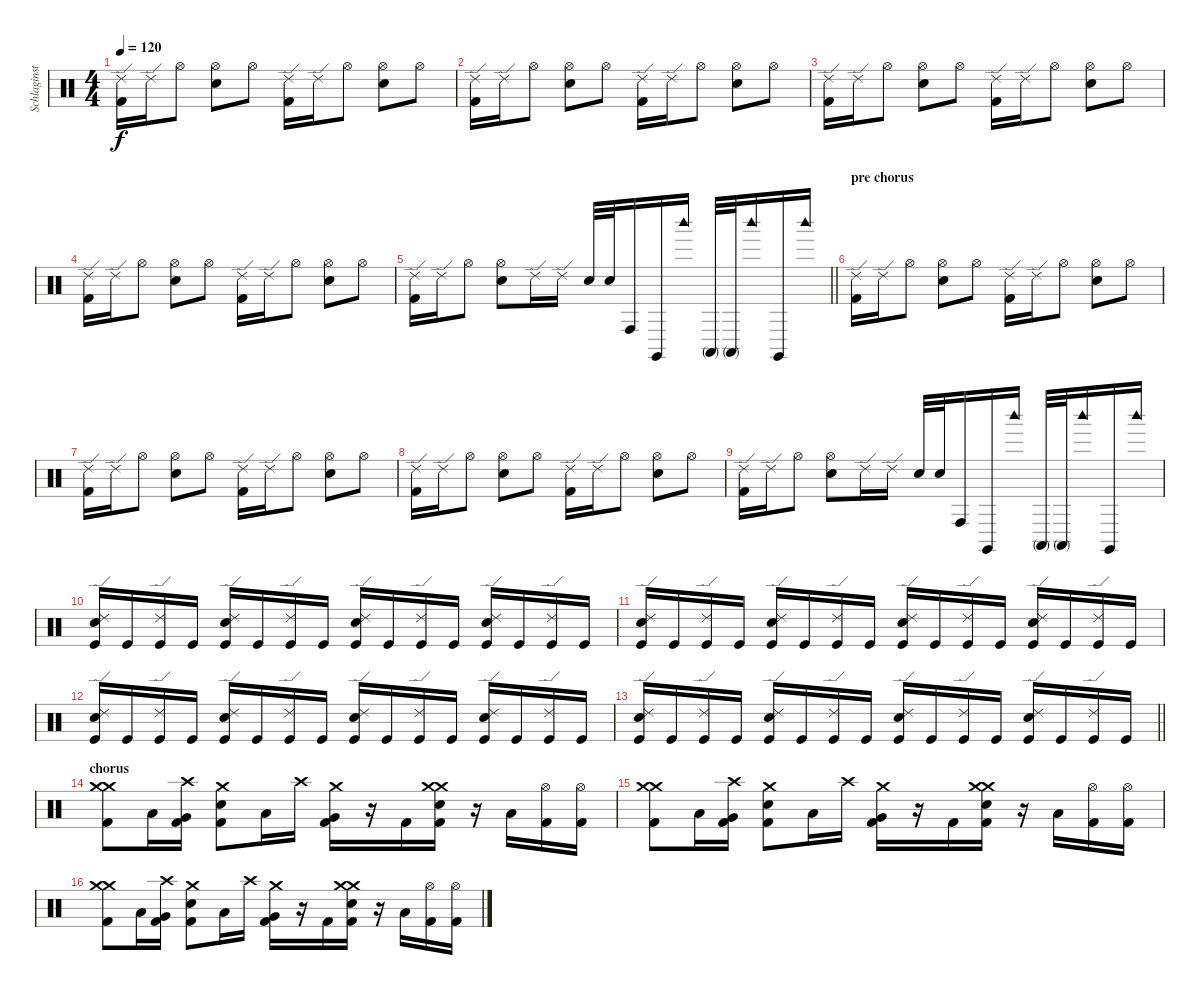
\track ("Schlaginstrumente - Auswahl" "Schlaginst") {instrument percussion}
\staff {score}
\articulation defaults
\ts (4 4)
\tempo 120
\clef neutral
\ks c
("Ride (edge) 2" "Kick (hit) 2").16{dy f} "Ride (edge) 2".16 "Hi-Hat (open)".8 ("Hi-Hat (open)" "Electric Snare (hit)").8 "Hi-Hat (open)".8 ("Ride (edge) 2" "Kick (hit) 2").16 "Ride (edge) 2".16 "Hi-Hat (open)".8 ("Hi-Hat (open)" "Electric Snare (hit)").8 "Hi-Hat (open)".8 |
("Ride (edge) 2" "Kick (hit) 2").16 "Ride (edge) 2".16 "Hi-Hat (open)".8 ("Hi-Hat (open)" "Electric Snare (hit)").8 "Hi-Hat (open)".8 ("Ride (edge) 2" "Kick (hit) 2").16 "Ride (edge) 2".16 "Hi-Hat (open)".8 ("Hi-Hat (open)" "Electric Snare (hit)").8 "Hi-Hat (open)".8 |
("Ride (edge) 2" "Kick (hit) 2").16 "Ride (edge) 2".16 "Hi-Hat (open)".8 ("Hi-Hat (open)" "Electric Snare (hit)").8 "Hi-Hat (open)".8 ("Ride (edge) 2" "Kick (hit) 2").16 "Ride (edge) 2".16 "Hi-Hat (open)".8 ("Hi-Hat (open)" "Electric Snare (hit)").8 "Hi-Hat (open)".8 |
("Ride (edge) 2" "Kick (hit) 2").16 "Ride (edge) 2".16 "Hi-Hat (open)".8 ("Hi-Hat (open)" "Electric Snare (hit)").8 "Hi-Hat (open)".8 ("Ride (edge) 2" "Kick (hit) 2").16 "Ride (edge) 2".16 "Hi-Hat (open)".8 ("Hi-Hat (open)" "Electric Snare (hit)").8 "Hi-Hat (open)".8 |
\barLineRight lightlight
("Ride (edge) 2" "Kick (hit) 2").16 "Ride (edge) 2".16 "Hi-Hat (open)".8 ("Hi-Hat (open)" "Electric Snare (hit)").8 "Ride (edge) 2".16 "Ride (edge) 2".16 "Electric Snare (hit)".32 "Electric Snare (hit)".32 "Conga high (hit)".16 "Claves (hit)".16 "Woodblock high (hit)".16 "Conga high (mute)".32 "Conga high (mute)".32 "Woodblock high (hit)".16 "Claves (hit)".16 "Woodblock high (hit)".16 |
\section ("" "pre chorus")
("Ride (edge) 2" "Kick (hit) 2").16 "Ride (edge) 2".16 "Hi-Hat (open)".8 ("Hi-Hat (open)" "Electric Snare (hit)").8 "Hi-Hat (open)".8 ("Ride (edge) 2" "Kick (hit) 2").16 "Ride (edge) 2".16 "Hi-Hat (open)".8 ("Hi-Hat (open)" "Electric Snare (hit)").8 "Hi-Hat (open)".8 |
("Ride (edge) 2" "Kick (hit) 2").16 "Ride (edge) 2".16 "Hi-Hat (open)".8 ("Hi-Hat (open)" "Electric Snare (hit)").8 "Hi-Hat (open)".8 ("Ride (edge) 2" "Kick (hit) 2").16 "Ride (edge) 2".16 "Hi-Hat (open)".8 ("Hi-Hat (open)" "Electric Snare (hit)").8 "Hi-Hat (open)".8 |
("Ride (edge) 2" "Kick (hit) 2").16 "Ride (edge) 2".16 "Hi-Hat (open)".8 ("Hi-Hat (open)" "Electric Snare (hit)").8 "Hi-Hat (open)".8 ("Ride (edge) 2" "Kick (hit) 2").16 "Ride (edge) 2".16 "Hi-Hat (open)".8 ("Hi-Hat (open)" "Electric Snare (hit)").8 "Hi-Hat (open)".8 |
("Ride (edge) 2" "Kick (hit) 2").16 "Ride (edge) 2".16 "Hi-Hat (open)".8 ("Hi-Hat (open)" "Electric Snare (hit)").8 "Ride (edge) 2".16 "Ride (edge) 2".16 "Electric Snare (hit)".32 "Electric Snare (hit)".32 "Conga high (hit)".16 "Claves (hit)".16 "Woodblock high (hit)".16 "Conga high (mute)".32 "Conga high (mute)".32 "Woodblock high (hit)".16 "Claves (hit)".16 "Woodblock high (hit)".16 |
("Ride (edge) 2" "Electric Snare (hit)" "Kick (hit)").16 "Kick (hit)".16 ("Ride (edge) 2" "Kick (hit)").16 "Kick (hit)".16 ("Ride (edge) 2" "Electric Snare (hit)" "Kick (hit)").16 "Kick (hit)".16 ("Ride (edge) 2" "Kick (hit)").16 "Kick (hit)".16 ("Ride (edge) 2" "Electric Snare (hit)" "Kick (hit)").16 "Kick (hit)".16 ("Ride (edge) 2" "Kick (hit)").16 "Kick (hit)".16 ("Ride (edge) 2" "Electric Snare (hit)" "Kick (hit)").16 "Kick (hit)".16 ("Ride (edge) 2" "Kick (hit)").16 "Kick (hit)".16 |
("Ride (edge) 2" "Electric Snare (hit)" "Kick (hit)").16 "Kick (hit)".16 ("Ride (edge) 2" "Kick (hit)").16 "Kick (hit)".16 ("Ride (edge) 2" "Electric Snare (hit)" "Kick (hit)").16 "Kick (hit)".16 ("Ride (edge) 2" "Kick (hit)").16 "Kick (hit)".16 ("Ride (edge) 2" "Electric Snare (hit)" "Kick (hit)").16 "Kick (hit)".16 ("Ride (edge) 2" "Kick (hit)").16 "Kick (hit)".16 ("Ride (edge) 2" "Electric Snare (hit)" "Kick (hit)").16 "Kick (hit)".16 ("Ride (edge) 2" "Kick (hit)").16 "Kick (hit)".16 |
("Ride (edge) 2" "Electric Snare (hit)" "Kick (hit)").16 "Kick (hit)".16 ("Ride (edge) 2" "Kick (hit)").16 "Kick (hit)".16 ("Ride (edge) 2" "Electric Snare (hit)" "Kick (hit)").16 "Kick (hit)".16 ("Ride (edge) 2" "Kick (hit)").16 "Kick (hit)".16 ("Ride (edge) 2" "Electric Snare (hit)" "Kick (hit)").16 "Kick (hit)".16 ("Ride (edge) 2" "Kick (hit)").16 "Kick (hit)".16 ("Ride (edge) 2" "Electric Snare (hit)" "Kick (hit)").16 "Kick (hit)".16 ("Ride (edge) 2" "Kick (hit)").16 "Kick (hit)".16 |
\barLineRight lightlight
("Ride (edge) 2" "Electric Snare (hit)" "Kick (hit)").16 "Kick (hit)".16 ("Ride (edge) 2" "Kick (hit)").16 "Kick (hit)".16 ("Ride (edge) 2" "Electric Snare (hit)" "Kick (hit)").16 "Kick (hit)".16 ("Ride (edge) 2" "Kick (hit)").16 "Kick (hit)".16 ("Ride (edge) 2" "Electric Snare (hit)" "Kick (hit)").16 "Kick (hit)".16 ("Ride (edge) 2" "Kick (hit)").16 "Kick (hit)".16 ("Ride (edge) 2" "Electric Snare (hit)" "Kick (hit)").16 "Kick (hit)".16 ("Ride (edge) 2" "Kick (hit)").16 "Kick (hit)".16 |
\section ("" "chorus")
("Crash medium (hit)" "Kick (hit) 2" "Crash medium (hit)").8 "Low Tom (hit)".16 ("Very Low Tom (hit)" "Kick (hit) 2" "Crash high (hit)").16 ("Electric Snare (hit)" "Kick (hit) 2" "Crash medium (hit)").8 "Low Tom (hit)".16 "Crash high (hit)".16 ("Very Low Tom (hit)" "Kick (hit) 2" "Crash medium (hit)").16 r.16 "Kick (hit) 2".16 ("Crash medium (hit)" "Electric Snare (hit)" "Kick (hit) 2" "Crash medium (hit)").16 r.16 "Low Tom (hit)".16 ("Kick (hit) 2" "Hi-Hat (open)").16 ("Kick (hit) 2" "Hi-Hat (open)").16 |
("Crash medium (hit)" "Kick (hit) 2" "Crash medium (hit)").8 "Low Tom (hit)".16 ("Very Low Tom (hit)" "Kick (hit) 2" "Crash high (hit)").16 ("Electric Snare (hit)" "Kick (hit) 2" "Crash medium (hit)").8 "Low Tom (hit)".16 "Crash high (hit)".16 ("Very Low Tom (hit)" "Kick (hit) 2" "Crash medium (hit)").16 r.16 "Kick (hit) 2".16 ("Crash medium (hit)" "Electric Snare (hit)" "Kick (hit) 2" "Crash medium (hit)").16 r.16 "Low Tom (hit)".16 ("Kick (hit) 2" "Hi-Hat (open)").16 ("Kick (hit) 2" "Hi-Hat (open)").16 |
("Crash medium (hit)" "Kick (hit) 2" "Crash medium (hit)").8 "Low Tom (hit)".16 ("Very Low Tom (hit)" "Kick (hit) 2" "Crash high (hit)").16 ("Electric Snare (hit)" "Kick (hit) 2" "Crash medium (hit)").8 "Low Tom (hit)".16 "Crash high (hit)".16 ("Very Low Tom (hit)" "Kick (hit) 2" "Crash medium (hit)").16 r.16 "Kick (hit) 2".16 ("Crash medium (hit)" "Electric Snare (hit)" "Kick (hit) 2" "Crash medium (hit)").16 r.16 "Low Tom (hit)".16 ("Kick (hit) 2" "Hi-Hat (open)").16 ("Kick (hit) 2" "Hi-Hat (open)").16
